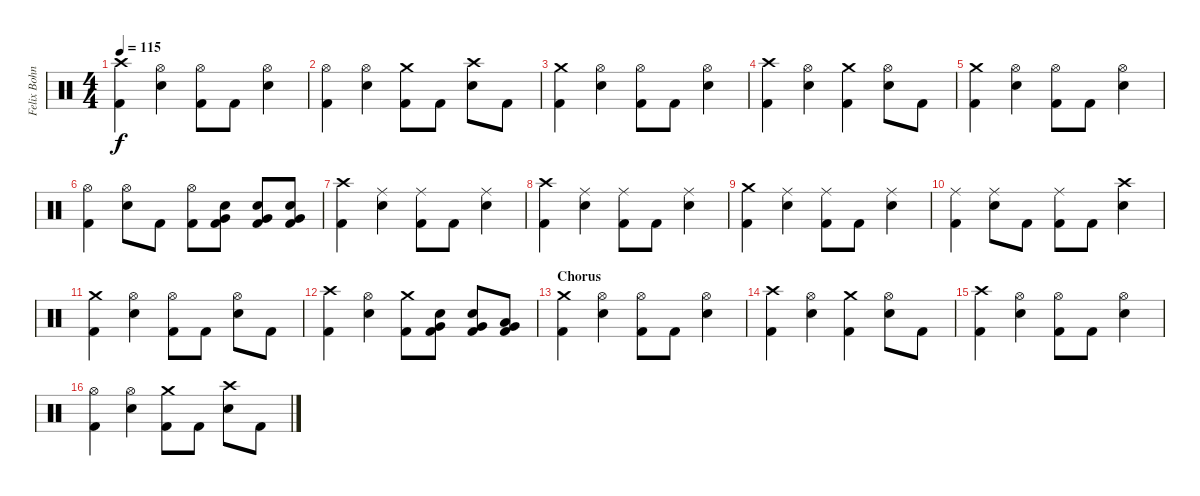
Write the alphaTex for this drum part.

\track ("Felix Bohnke" "Felix Bohn") {instrument percussion}
\staff {score}
\articulation defaults
\ts (4 4)
\tempo 115
\clef neutral
\ks c
("Crash high (hit)" "Kick (hit) 2").4{dy f} ("Hi-Hat (open)" "Electric Snare (hit)").4 ("Hi-Hat (open)" "Kick (hit) 2").8 "Kick (hit) 2".8 ("Hi-Hat (open)" "Electric Snare (hit)").4 |
("Hi-Hat (open)" "Kick (hit) 2").4 ("Hi-Hat (open)" "Electric Snare (hit)").4 ("Crash medium (hit)" "Kick (hit) 2").8 "Kick (hit) 2".8 ("Crash high (hit)" "Electric Snare (hit)").8 "Kick (hit) 2".8 |
("Crash medium (hit)" "Kick (hit) 2").4 ("Hi-Hat (open)" "Electric Snare (hit)").4 ("Hi-Hat (open)" "Kick (hit) 2").8 "Kick (hit) 2".8 ("Hi-Hat (open)" "Electric Snare (hit)").4 |
("Crash high (hit)" "Kick (hit) 2").4 ("Hi-Hat (open)" "Electric Snare (hit)").4 ("Crash medium (hit)" "Kick (hit) 2").4 ("Hi-Hat (open)" "Electric Snare (hit)").8 "Kick (hit) 2".8 |
("Crash medium (hit)" "Kick (hit) 2").4 ("Hi-Hat (open)" "Electric Snare (hit)").4 ("Hi-Hat (open)" "Kick (hit) 2").8 "Kick (hit) 2".8 ("Hi-Hat (open)" "Electric Snare (hit)").4 |
("Hi-Hat (open)" "Kick (hit) 2").4 ("Hi-Hat (open)" "Electric Snare (hit)").8 "Kick (hit) 2".8 ("Hi-Hat (open)" "Kick (hit) 2").8 ("Very Low Tom (hit)" "Electric Snare (hit)" "Kick (hit) 2").8 ("Very Low Tom (hit)" "Electric Snare (hit)" "Kick (hit) 2").8 ("Very Low Tom (hit)" "Electric Snare (hit)" "Kick (hit) 2").8 |
("Crash high (hit)" "Kick (hit) 2").4 ("Ride (middle)" "Electric Snare (hit)").4 ("Ride (middle)" "Kick (hit) 2").8 "Kick (hit) 2".8 ("Ride (middle)" "Electric Snare (hit)").4 |
("Crash high (hit)" "Kick (hit) 2").4 ("Ride (middle)" "Electric Snare (hit)").4 ("Ride (middle)" "Kick (hit) 2").8 "Kick (hit) 2".8 ("Ride (middle)" "Electric Snare (hit)").4 |
("Crash medium (hit)" "Kick (hit) 2").4 ("Ride (middle)" "Electric Snare (hit)").4 ("Ride (middle)" "Kick (hit) 2").8 "Kick (hit) 2".8 ("Ride (middle)" "Electric Snare (hit)").4 |
("Ride (middle)" "Kick (hit) 2").4 ("Ride (middle)" "Electric Snare (hit)").8 "Kick (hit) 2".8 ("Ride (middle)" "Kick (hit) 2").8 "Kick (hit) 2".8 ("Crash high (hit)" "Electric Snare (hit)").4 |
("Crash medium (hit)" "Kick (hit) 2").4 ("Hi-Hat (open)" "Electric Snare (hit)").4 ("Hi-Hat (open)" "Kick (hit) 2").8 "Kick (hit) 2".8 ("Hi-Hat (open)" "Electric Snare (hit)").8 "Kick (hit) 2".8 |
("Crash high (hit)" "Kick (hit) 2").4 ("Hi-Hat (open)" "Electric Snare (hit)").4 ("Crash medium (hit)" "Kick (hit) 2").8 ("Very Low Tom (hit)" "Electric Snare (hit)" "Kick (hit) 2").8 ("Very Low Tom (hit)" "Electric Snare (hit)" "Kick (hit) 2").8 ("Very Low Tom (hit)" "Low Floor Tom (hit)" "Kick (hit) 2").8 |
\section ("" "Chorus")
("Crash medium (hit)" "Kick (hit) 2").4 ("Hi-Hat (open)" "Electric Snare (hit)").4 ("Hi-Hat (open)" "Kick (hit) 2").8 "Kick (hit) 2".8 ("Hi-Hat (open)" "Electric Snare (hit)").4 |
("Crash high (hit)" "Kick (hit) 2").4 ("Hi-Hat (open)" "Electric Snare (hit)").4 ("Crash medium (hit)" "Kick (hit) 2").4 ("Hi-Hat (open)" "Electric Snare (hit)").8 "Kick (hit) 2".8 |
("Crash high (hit)" "Kick (hit) 2").4 ("Hi-Hat (open)" "Electric Snare (hit)").4 ("Hi-Hat (open)" "Kick (hit) 2").8 "Kick (hit) 2".8 ("Hi-Hat (open)" "Electric Snare (hit)").4 |
("Hi-Hat (open)" "Kick (hit) 2").4 ("Hi-Hat (open)" "Electric Snare (hit)").4 ("Crash medium (hit)" "Kick (hit) 2").8 "Kick (hit) 2".8 ("Crash high (hit)" "Electric Snare (hit)").8 "Kick (hit) 2".8
